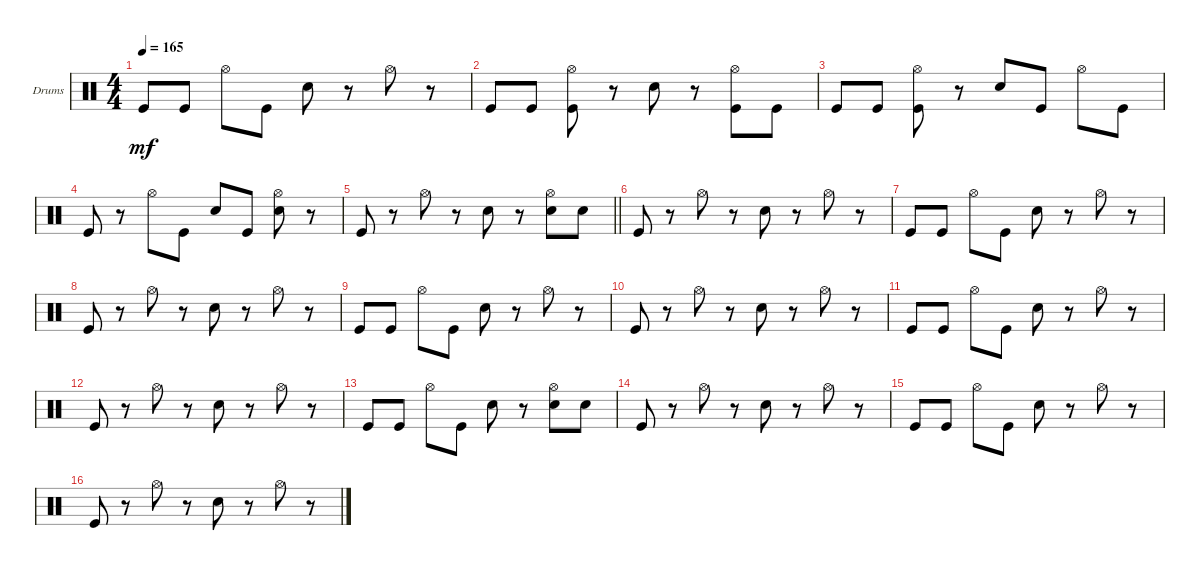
\defaultSystemsLayout 4
\bracketExtendMode groupsimilarinstruments
\firstSystemTrackNameOrientation horizontal
\otherSystemsTrackNameOrientation horizontal
\track ("Drumkit" "Drums") {instrument percussion}
\staff {score}
\articulation defaults
\ts (4 4)
\tempo 165
\clef neutral
\ks c "Kick (hit)".8{dy mf} "Kick (hit)".8 "Hi-Hat (open)".8 "Kick (hit)".8 "Snare (hit) 2".8
r.8 "Hi-Hat (open)".8 r.8 |
"Kick (hit)".8 "Kick (hit)".8 ("Kick (hit)" "Hi-Hat (open)").8 r.8 "Snare (hit) 2".8 r.8 ("Kick (hit)" "Hi-Hat (open)").8 "Kick (hit)".8 |
"Kick (hit)".8 "Kick (hit)".8 ("Kick (hit)" "Hi-Hat (open)").8 r.8 "Snare (hit) 2".8 "Kick (hit)".8 "Hi-Hat (open)".8 "Kick (hit)".8 |
"Kick (hit)".8 r.8 "Hi-Hat (open)".8 "Kick (hit)".8 "Snare (hit) 2".8 "Kick (hit)".8 ("Hi-Hat (open)" "Snare (hit) 2").8 r.8 |
\barLineRight lightlight "Kick (hit)".8
r.8 "Hi-Hat (open)".8 r.8 "Snare (hit) 2".8 r.8 ("Snare (hit) 2" "Hi-Hat (open)").8 "Snare (hit) 2".8 |
"Kick (hit)".8 r.8 "Hi-Hat (open)".8 r.8 "Snare (hit) 2".8 r.8 "Hi-Hat (open)".8 r.8 |
"Kick (hit)".8 "Kick (hit)".8 "Hi-Hat (open)".8 "Kick (hit)".8 "Snare (hit) 2".8 r.8 "Hi-Hat (open)".8 r.8 |
"Kick (hit)".8 r.8 "Hi-Hat (open)".8 r.8 "Snare (hit) 2".8 r.8 "Hi-Hat (open)".8 r.8 |
"Kick (hit)".8 "Kick (hit)".8 "Hi-Hat (open)".8 "Kick (hit)".8 "Snare (hit) 2".8 r.8 "Hi-Hat (open)".8 r.8 |
"Kick (hit)".8 r.8 "Hi-Hat (open)".8 r.8 "Snare (hit) 2".8 r.8 "Hi-Hat (open)".8 r.8 |
"Kick (hit)".8 "Kick (hit)".8 "Hi-Hat (open)".8 "Kick (hit)".8 "Snare (hit) 2".8 r.8 "Hi-Hat (open)".8 r.8 |
"Kick (hit)".8 r.8 "Hi-Hat (open)".8 r.8 "Snare (hit) 2".8 r.8 "Hi-Hat (open)".8 r.8 |
"Kick (hit)".8 "Kick (hit)".8 "Hi-Hat (open)".8 "Kick (hit)".8 "Snare (hit) 2".8 r.8 ("Hi-Hat (open)" "Snare (hit) 2").8 "Snare (hit) 2".8 |
"Kick (hit)".8 r.8 "Hi-Hat (open)".8 r.8 "Snare (hit) 2".8 r.8 "Hi-Hat (open)".8 r.8 |
"Kick (hit)".8 "Kick (hit)".8 "Hi-Hat (open)".8 "Kick (hit)".8 "Snare (hit) 2".8 r.8 "Hi-Hat (open)".8 r.8 |
"Kick (hit)".8 r.8 "Hi-Hat (open)".8 r.8 "Snare (hit) 2".8 r.8 "Hi-Hat (open)".8 r.8
